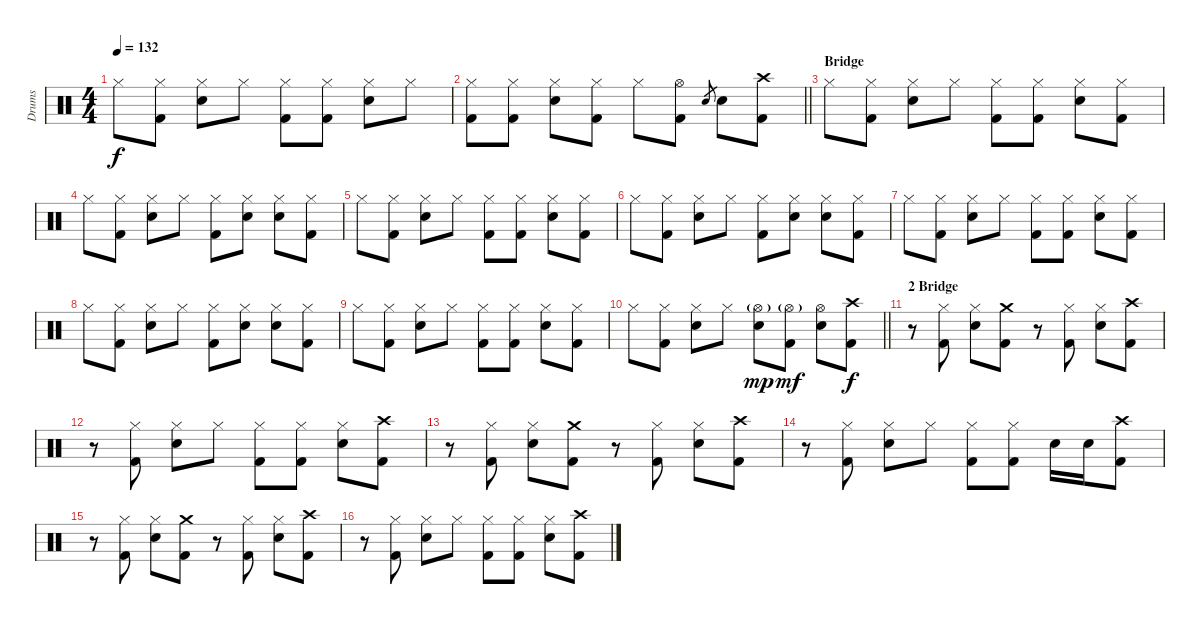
\track ("Drums" "Drums") {instrument percussion}
\staff {score}
\articulation defaults
\ts (4 4)
\tempo 132
\clef neutral
\ks c "Hi-Hat (closed)".8{dy f}
("Hi-Hat (closed)" "Kick (hit) 2").8 ("Hi-Hat (closed)" "Electric Snare (hit)").8 "Hi-Hat (closed)".8 ("Hi-Hat (closed)" "Kick (hit) 2").8 ("Hi-Hat (closed)" "Kick (hit) 2").8 ("Hi-Hat (closed)" "Electric Snare (hit)").8 "Hi-Hat (closed)".8 |
\barLineRight lightlight
("Hi-Hat (closed)" "Kick (hit) 2").8 ("Hi-Hat (closed)" "Kick (hit) 2").8 ("Hi-Hat (closed)" "Electric Snare (hit)").8 ("Hi-Hat (closed)" "Kick (hit) 2").8 "Hi-Hat (closed)".8 ("Hi-Hat (open)" "Kick (hit) 2").8 "Electric Snare (hit)".8{gr} "Electric Snare (hit)".8 ("Crash high (hit)" "Kick (hit) 2").8 |
\section ("" "Bridge")
"Hi-Hat (closed)".8 ("Hi-Hat (closed)" "Kick (hit) 2").8 ("Hi-Hat (closed)" "Electric Snare (hit)").8 "Hi-Hat (closed)".8 ("Hi-Hat (closed)" "Kick (hit) 2").8 ("Hi-Hat (closed)" "Kick (hit) 2").8 ("Hi-Hat (closed)" "Electric Snare (hit)").8 ("Hi-Hat (closed)" "Kick (hit) 2").8 |
"Hi-Hat (closed)".8 ("Hi-Hat (closed)" "Kick (hit) 2").8 ("Hi-Hat (closed)" "Electric Snare (hit)").8 "Hi-Hat (closed)".8 ("Hi-Hat (closed)" "Kick (hit) 2").8 ("Hi-Hat (closed)" "Electric Snare (hit)").8 ("Hi-Hat (closed)" "Electric Snare (hit)").8 ("Hi-Hat (closed)" "Kick (hit) 2").8 |
"Hi-Hat (closed)".8 ("Hi-Hat (closed)" "Kick (hit) 2").8 ("Hi-Hat (closed)" "Electric Snare (hit)").8 "Hi-Hat (closed)".8 ("Hi-Hat (closed)" "Kick (hit) 2").8 ("Hi-Hat (closed)" "Kick (hit) 2").8 ("Hi-Hat (closed)" "Electric Snare (hit)").8 ("Hi-Hat (closed)" "Kick (hit) 2").8 |
"Hi-Hat (closed)".8 ("Hi-Hat (closed)" "Kick (hit) 2").8 ("Hi-Hat (closed)" "Electric Snare (hit)").8 "Hi-Hat (closed)".8 ("Hi-Hat (closed)" "Kick (hit) 2").8 ("Hi-Hat (closed)" "Electric Snare (hit)").8 ("Hi-Hat (closed)" "Electric Snare (hit)").8 ("Hi-Hat (closed)" "Kick (hit) 2").8 |
"Hi-Hat (closed)".8 ("Hi-Hat (closed)" "Kick (hit) 2").8 ("Hi-Hat (closed)" "Electric Snare (hit)").8 "Hi-Hat (closed)".8 ("Hi-Hat (closed)" "Kick (hit) 2").8 ("Hi-Hat (closed)" "Kick (hit) 2").8 ("Hi-Hat (closed)" "Electric Snare (hit)").8 ("Hi-Hat (closed)" "Kick (hit) 2").8 |
"Hi-Hat (closed)".8 ("Hi-Hat (closed)" "Kick (hit) 2").8 ("Hi-Hat (closed)" "Electric Snare (hit)").8 "Hi-Hat (closed)".8 ("Hi-Hat (closed)" "Kick (hit) 2").8 ("Hi-Hat (closed)" "Electric Snare (hit)").8 ("Hi-Hat (closed)" "Electric Snare (hit)").8 ("Hi-Hat (closed)" "Kick (hit) 2").8 |
"Hi-Hat (closed)".8 ("Hi-Hat (closed)" "Kick (hit) 2").8 ("Hi-Hat (closed)" "Electric Snare (hit)").8 "Hi-Hat (closed)".8 ("Hi-Hat (closed)" "Kick (hit) 2").8 ("Hi-Hat (closed)" "Kick (hit) 2").8 ("Hi-Hat (closed)" "Electric Snare (hit)").8 ("Hi-Hat (closed)" "Kick (hit) 2").8 |
\barLineRight lightlight "Hi-Hat (closed)".8
("Hi-Hat (closed)" "Kick (hit) 2").8 ("Hi-Hat (closed)" "Electric Snare (hit)").8 "Hi-Hat (closed)".8 ("Hi-Hat (open)"{g} "Electric Snare (hit)").8{dy mp} ("Hi-Hat (open)"{g} "Kick (hit) 2").8{dy mf} ("Hi-Hat (open)" "Electric Snare (hit)").8 ("Crash high (hit)" "Kick (hit) 2").8{dy f} |
\section ("" "2 Bridge")
r.8 ("Hi-Hat (closed)" "Kick (hit) 2").8 ("Hi-Hat (closed)" "Electric Snare (hit)").8 ("Crash medium (hit)" "Kick (hit) 2").8 r.8 ("Hi-Hat (closed)" "Kick (hit) 2").8 ("Hi-Hat (closed)" "Electric Snare (hit)").8 ("Crash high (hit)" "Kick (hit) 2").8 |
r.8 ("Hi-Hat (closed)" "Kick (hit) 2").8 ("Hi-Hat (closed)" "Electric Snare (hit)").8 "Hi-Hat (closed)".8 ("Hi-Hat (closed)" "Kick (hit) 2").8 ("Hi-Hat (closed)" "Kick (hit) 2").8 ("Hi-Hat (closed)" "Electric Snare (hit)").8 ("Crash high (hit)" "Kick (hit) 2").8 |
r.8 ("Hi-Hat (closed)" "Kick (hit) 2").8 ("Hi-Hat (closed)" "Electric Snare (hit)").8 ("Crash medium (hit)" "Kick (hit) 2").8 r.8 ("Hi-Hat (closed)" "Kick (hit) 2").8 ("Hi-Hat (closed)" "Electric Snare (hit)").8 ("Crash high (hit)" "Kick (hit) 2").8 |
r.8 ("Hi-Hat (closed)" "Kick (hit) 2").8 ("Hi-Hat (closed)" "Electric Snare (hit)").8 "Hi-Hat (closed)".8 ("Hi-Hat (closed)" "Kick (hit) 2").8 ("Hi-Hat (closed)" "Kick (hit) 2").8 "Electric Snare (hit)".16 "Electric Snare (hit)".16 ("Crash high (hit)" "Kick (hit) 2").8 |
r.8 ("Hi-Hat (closed)" "Kick (hit) 2").8 ("Hi-Hat (closed)" "Electric Snare (hit)").8 ("Crash medium (hit)" "Kick (hit) 2").8 r.8 ("Hi-Hat (closed)" "Kick (hit) 2").8 ("Hi-Hat (closed)" "Electric Snare (hit)").8 ("Crash high (hit)" "Kick (hit) 2").8 |
r.8 ("Hi-Hat (closed)" "Kick (hit) 2").8 ("Hi-Hat (closed)" "Electric Snare (hit)").8 "Hi-Hat (closed)".8 ("Hi-Hat (closed)" "Kick (hit) 2").8 ("Hi-Hat (closed)" "Kick (hit) 2").8 ("Hi-Hat (closed)" "Electric Snare (hit)").8 ("Crash high (hit)" "Kick (hit) 2").8
